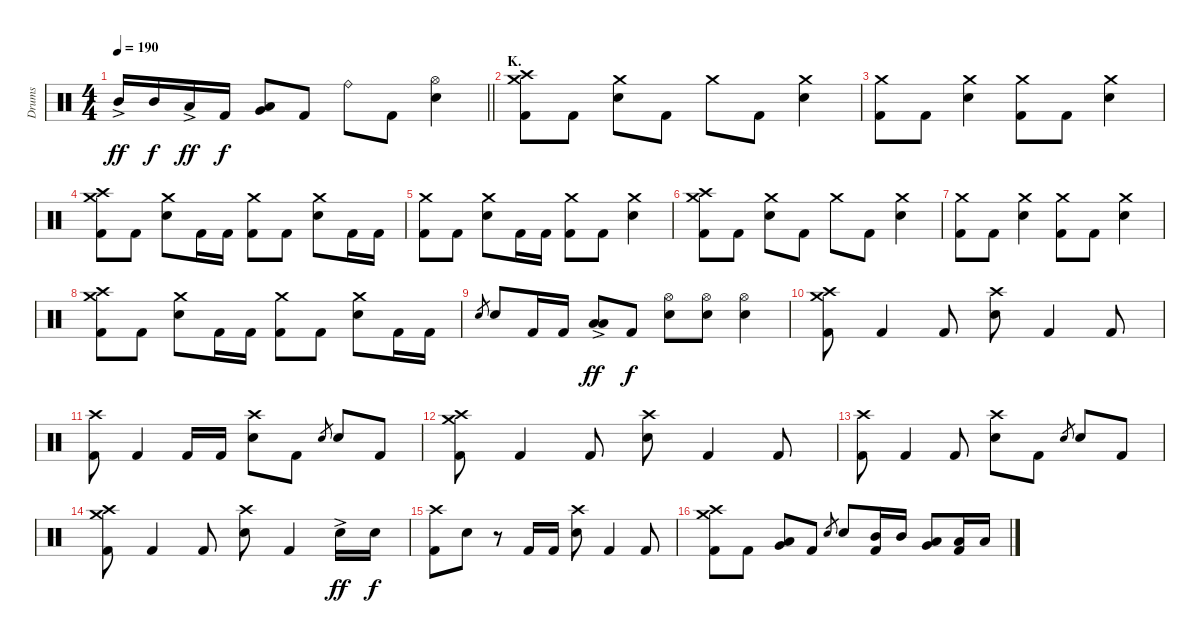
\track ("Drums" "Drums") {instrument percussion}
\staff {score}
\articulation defaults
\ts (4 4)
\tempo 190
\clef neutral
\barLineRight lightlight
\ks c "Mid Tom (hit)"{ac}.16{dy ff} "Mid Tom (hit)".16{dy f} "Low Tom (hit)"{ac}.16{dy ff} "Kick (hit) 2".16{dy f}
("Low Tom (hit)" "Very Low Tom (hit)").8{bu 120} "Kick (hit) 2".8 "Ride (bell)".8 "Kick (hit) 2".8 ("Hi-Hat (open)" "Electric Snare (hit)").4 |
\section ("" "K.")
("Crash medium (hit)" "Crash high (hit)" "Kick (hit) 2").8 "Kick (hit) 2".8 ("Crash medium (hit)" "Electric Snare (hit)").8 "Kick (hit) 2".8 "Crash medium (hit)".8 "Kick (hit) 2".8 ("Crash medium (hit)" "Electric Snare (hit)").4 |
("Crash medium (hit)" "Kick (hit) 2").8 "Kick (hit) 2".8 ("Crash medium (hit)" "Electric Snare (hit)").4 ("Crash medium (hit)" "Kick (hit) 2").8 "Kick (hit) 2".8 ("Crash medium (hit)" "Electric Snare (hit)").4 |
("Crash medium (hit)" "Crash high (hit)" "Kick (hit) 2").8 "Kick (hit) 2".8 ("Crash medium (hit)" "Electric Snare (hit)").8 "Kick (hit) 2".16 "Kick (hit) 2".16 ("Crash medium (hit)" "Kick (hit) 2").8 "Kick (hit) 2".8 ("Crash medium (hit)" "Electric Snare (hit)").8 "Kick (hit) 2".16 "Kick (hit) 2".16 |
("Crash medium (hit)" "Kick (hit) 2").8 "Kick (hit) 2".8 ("Crash medium (hit)" "Electric Snare (hit)").8 "Kick (hit) 2".16 "Kick (hit) 2".16 ("Crash medium (hit)" "Kick (hit) 2").8 "Kick (hit) 2".8 ("Crash medium (hit)" "Electric Snare (hit)").4 |
("Crash medium (hit)" "Crash high (hit)" "Kick (hit) 2").8 "Kick (hit) 2".8 ("Crash medium (hit)" "Electric Snare (hit)").8 "Kick (hit) 2".8 "Crash medium (hit)".8 "Kick (hit) 2".8 ("Crash medium (hit)" "Electric Snare (hit)").4 |
("Crash medium (hit)" "Kick (hit) 2").8 "Kick (hit) 2".8 ("Crash medium (hit)" "Electric Snare (hit)").4 ("Crash medium (hit)" "Kick (hit) 2").8 "Kick (hit) 2".8 ("Crash medium (hit)" "Electric Snare (hit)").4 |
("Crash medium (hit)" "Crash high (hit)" "Kick (hit) 2").8 "Kick (hit) 2".8 ("Crash medium (hit)" "Electric Snare (hit)").8 "Kick (hit) 2".16 "Kick (hit) 2".16 ("Crash medium (hit)" "Kick (hit) 2").8 "Kick (hit) 2".8 ("Crash medium (hit)" "Electric Snare (hit)").8 "Kick (hit) 2".16 "Kick (hit) 2".16 |
"Electric Snare (hit)".8{gr} "Electric Snare (hit)".8 "Kick (hit) 2".16 "Kick (hit) 2".16 ("Low Tom (hit)" "Low Floor Tom (hit)"{ac}).8{bu 120 dy ff} "Kick (hit) 2".8{dy f} ("Hi-Hat (open)" "Electric Snare (hit)").8 ("Hi-Hat (open)" "Electric Snare (hit)").8 ("Hi-Hat (open)" "Electric Snare (hit)").4 |
("Crash medium (hit)" "Crash high (hit)" "Kick (hit) 2").8 "Kick (hit) 2".4 "Kick (hit) 2".8 ("Crash high (hit)" "Electric Snare (hit)").8 "Kick (hit) 2".4 "Kick (hit) 2".8 |
("Crash high (hit)" "Kick (hit) 2").8 "Kick (hit) 2".4 "Kick (hit) 2".16 "Kick (hit) 2".16 ("Crash high (hit)" "Electric Snare (hit)").8 "Kick (hit) 2".8 "Electric Snare (hit)".8{gr} "Electric Snare (hit)".8 "Kick (hit) 2".8 |
("Crash medium (hit)" "Crash high (hit)" "Kick (hit) 2").8 "Kick (hit) 2".4 "Kick (hit) 2".8 ("Crash high (hit)" "Electric Snare (hit)").8 "Kick (hit) 2".4 "Kick (hit) 2".8 |
("Crash high (hit)" "Kick (hit) 2").8 "Kick (hit) 2".4 "Kick (hit) 2".8 ("Crash high (hit)" "Electric Snare (hit)").8 "Kick (hit) 2".8 "Electric Snare (hit)".8{gr} "Electric Snare (hit)".8 "Kick (hit) 2".8 |
("Crash medium (hit)" "Crash high (hit)" "Kick (hit) 2").8 "Kick (hit) 2".4 "Kick (hit) 2".8 ("Crash high (hit)" "Electric Snare (hit)").8 "Kick (hit) 2".4 "Electric Snare (hit)"{ac}.16{dy ff} "Electric Snare (hit)".16{dy f} |
("Crash high (hit)" "Kick (hit) 2").8 "Electric Snare (hit)".8 r.8 "Kick (hit) 2".16 "Kick (hit) 2".16 ("Crash high (hit)" "Electric Snare (hit)").8 "Kick (hit) 2".4 "Kick (hit) 2".8 |
("Crash medium (hit)" "Crash high (hit)" "Kick (hit) 2").8 "Kick (hit) 2".8 ("Low Tom (hit)" "Very Low Tom (hit)").8{bu 120} "Kick (hit) 2".8 "Electric Snare (hit)".8{gr} "Electric Snare (hit)".8 ("Mid Tom (hit)" "Kick (hit) 2").16 "Mid Tom (hit)".16 ("Very Low Tom (hit)" "Low Floor Tom (hit)").8{bu 120} ("Low Tom (hit)" "Kick (hit) 2").16 "Low Tom (hit)".16
